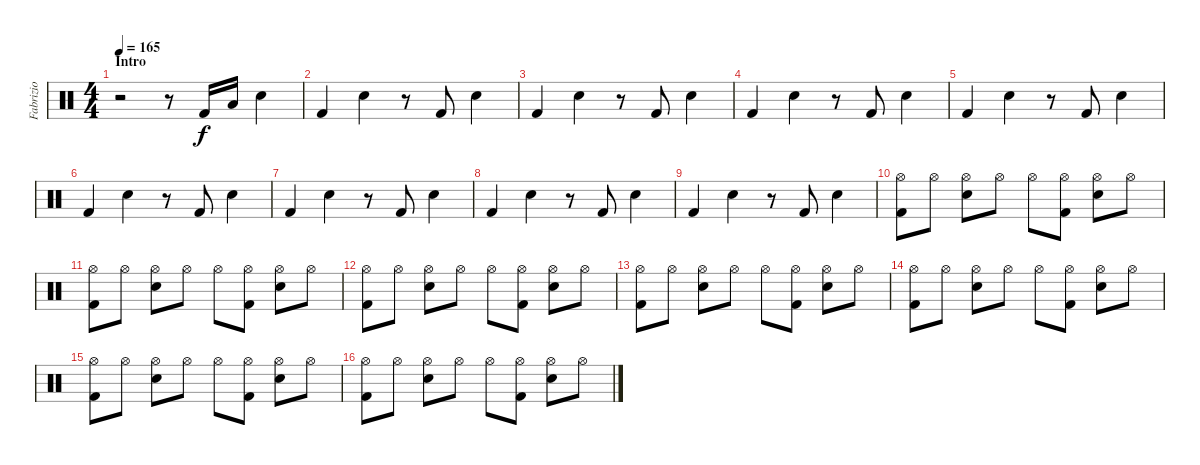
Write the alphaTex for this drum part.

\track ("Fabrizio" "Fabrizio") {instrument percussion}
\staff {score}
\articulation defaults
\ts (4 4)
\section ("" "Intro")
\tempo 165
\clef neutral
\ks c
r.2{dy f} r.8 "Kick (hit) 2".16 "Low Floor Tom (hit)".16 "Snare (hit) 2".4 |
"Kick (hit) 2".4 "Snare (hit) 2".4 r.8 "Kick (hit) 2".8 "Snare (hit) 2".4 |
"Kick (hit) 2".4 "Snare (hit) 2".4 r.8 "Kick (hit) 2".8 "Snare (hit) 2".4 |
"Kick (hit) 2".4 "Snare (hit) 2".4 r.8 "Kick (hit) 2".8 "Snare (hit) 2".4 |
"Kick (hit) 2".4 "Snare (hit) 2".4 r.8 "Kick (hit) 2".8 "Snare (hit) 2".4 |
"Kick (hit) 2".4 "Snare (hit) 2".4 r.8 "Kick (hit) 2".8 "Snare (hit) 2".4 |
"Kick (hit) 2".4 "Snare (hit) 2".4 r.8 "Kick (hit) 2".8 "Snare (hit) 2".4 |
"Kick (hit) 2".4 "Snare (hit) 2".4 r.8 "Kick (hit) 2".8 "Snare (hit) 2".4 |
"Kick (hit) 2".4 "Snare (hit) 2".4 r.8 "Kick (hit) 2".8 "Snare (hit) 2".4 |
("Hi-Hat (open)" "Kick (hit) 2").8 "Hi-Hat (open)".8 ("Hi-Hat (open)" "Snare (hit) 2").8 "Hi-Hat (open)".8 "Hi-Hat (open)".8 ("Kick (hit) 2" "Hi-Hat (open)").8 ("Hi-Hat (open)" "Snare (hit) 2").8 "Hi-Hat (open)".8 |
("Kick (hit) 2" "Hi-Hat (open)").8 "Hi-Hat (open)".8 ("Snare (hit) 2" "Hi-Hat (open)").8 "Hi-Hat (open)".8 "Hi-Hat (open)".8 ("Kick (hit) 2" "Hi-Hat (open)").8 ("Snare (hit) 2" "Hi-Hat (open)").8 "Hi-Hat (open)".8 |
("Kick (hit) 2" "Hi-Hat (open)").8 "Hi-Hat (open)".8 ("Snare (hit) 2" "Hi-Hat (open)").8 "Hi-Hat (open)".8 "Hi-Hat (open)".8 ("Kick (hit) 2" "Hi-Hat (open)").8 ("Snare (hit) 2" "Hi-Hat (open)").8 "Hi-Hat (open)".8 |
("Kick (hit) 2" "Hi-Hat (open)").8 "Hi-Hat (open)".8 ("Snare (hit) 2" "Hi-Hat (open)").8 "Hi-Hat (open)".8 "Hi-Hat (open)".8 ("Kick (hit) 2" "Hi-Hat (open)").8 ("Snare (hit) 2" "Hi-Hat (open)").8 "Hi-Hat (open)".8 |
("Kick (hit) 2" "Hi-Hat (open)").8 "Hi-Hat (open)".8 ("Snare (hit) 2" "Hi-Hat (open)").8 "Hi-Hat (open)".8 "Hi-Hat (open)".8 ("Kick (hit) 2" "Hi-Hat (open)").8 ("Snare (hit) 2" "Hi-Hat (open)").8 "Hi-Hat (open)".8 |
("Kick (hit) 2" "Hi-Hat (open)").8 "Hi-Hat (open)".8 ("Snare (hit) 2" "Hi-Hat (open)").8 "Hi-Hat (open)".8 "Hi-Hat (open)".8 ("Kick (hit) 2" "Hi-Hat (open)").8 ("Snare (hit) 2" "Hi-Hat (open)").8 "Hi-Hat (open)".8 |
("Kick (hit) 2" "Hi-Hat (open)").8 "Hi-Hat (open)".8 ("Snare (hit) 2" "Hi-Hat (open)").8 "Hi-Hat (open)".8 "Hi-Hat (open)".8 ("Kick (hit) 2" "Hi-Hat (open)").8 ("Snare (hit) 2" "Hi-Hat (open)").8 "Hi-Hat (open)".8
